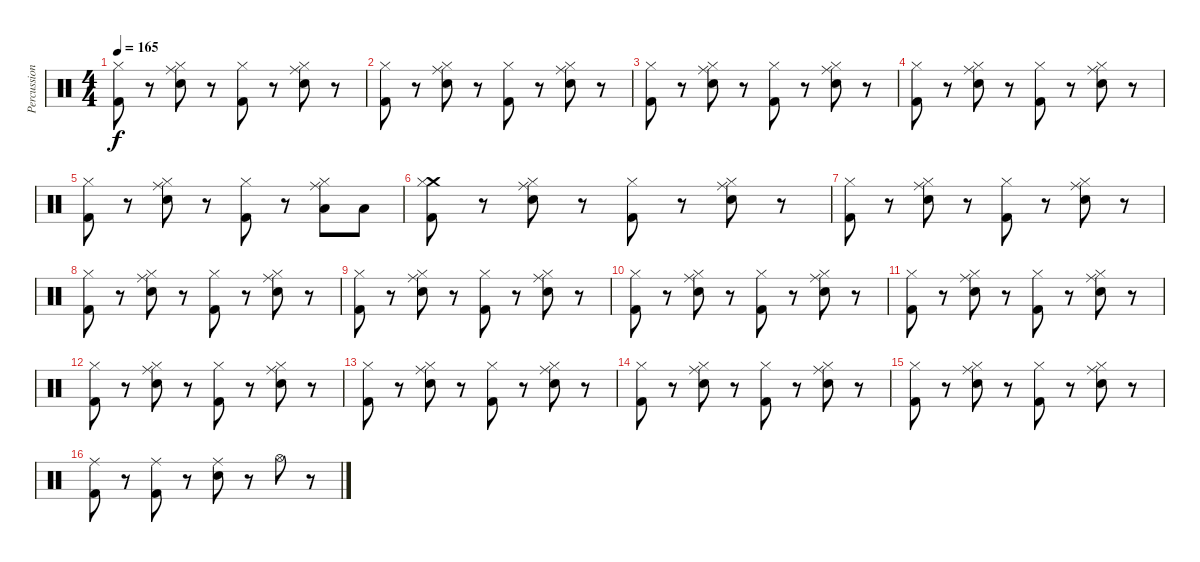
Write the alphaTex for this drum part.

\track ("Percussions" "Percussion") {instrument percussion}
\staff {score}
\articulation defaults
\ts (4 4)
\tempo 165
\clef neutral
\ks c
("Kick (hit) 2" "Hi-Hat (closed)").8{dy f} r.8 ("Electric Snare (hit)" "Ride (middle)" "Hi-Hat (closed)").8 r.8 ("Kick (hit) 2" "Hi-Hat (closed)").8 r.8 ("Electric Snare (hit)" "Ride (middle)" "Hi-Hat (closed)").8 r.8 |
("Kick (hit) 2" "Hi-Hat (closed)").8 r.8 ("Electric Snare (hit)" "Ride (middle)" "Hi-Hat (closed)").8 r.8 ("Kick (hit) 2" "Hi-Hat (closed)").8 r.8 ("Electric Snare (hit)" "Ride (middle)" "Hi-Hat (closed)").8 r.8 |
("Kick (hit) 2" "Hi-Hat (closed)").8 r.8 ("Electric Snare (hit)" "Ride (middle)" "Hi-Hat (closed)").8 r.8 ("Kick (hit) 2" "Hi-Hat (closed)").8 r.8 ("Electric Snare (hit)" "Ride (middle)" "Hi-Hat (closed)").8 r.8 |
("Kick (hit) 2" "Hi-Hat (closed)").8 r.8 ("Electric Snare (hit)" "Ride (middle)" "Hi-Hat (closed)").8 r.8 ("Kick (hit) 2" "Hi-Hat (closed)").8 r.8 ("Electric Snare (hit)" "Ride (middle)" "Hi-Hat (closed)").8 r.8 |
("Kick (hit) 2" "Hi-Hat (closed)").8 r.8 ("Electric Snare (hit)" "Ride (middle)" "Hi-Hat (closed)").8 r.8 ("Kick (hit) 2" "Hi-Hat (closed)").8 r.8 ("Low Tom (hit)" "Ride (middle)" "Hi-Hat (closed)").8 "Low Tom (hit)".8 |
("Kick (hit) 2" "Crash medium (hit)" "Hi-Hat (closed)").8 r.8 ("Electric Snare (hit)" "Ride (middle)" "Hi-Hat (closed)").8 r.8 ("Kick (hit) 2" "Hi-Hat (closed)").8 r.8 ("Electric Snare (hit)" "Ride (middle)" "Hi-Hat (closed)").8 r.8 |
("Kick (hit) 2" "Hi-Hat (closed)").8 r.8 ("Electric Snare (hit)" "Ride (middle)" "Hi-Hat (closed)").8 r.8 ("Kick (hit) 2" "Hi-Hat (closed)").8 r.8 ("Electric Snare (hit)" "Ride (middle)" "Hi-Hat (closed)").8 r.8 |
("Kick (hit) 2" "Hi-Hat (closed)").8 r.8 ("Electric Snare (hit)" "Ride (middle)" "Hi-Hat (closed)").8 r.8 ("Kick (hit) 2" "Hi-Hat (closed)").8 r.8 ("Electric Snare (hit)" "Ride (middle)" "Hi-Hat (closed)").8 r.8 |
("Kick (hit) 2" "Hi-Hat (closed)").8 r.8 ("Electric Snare (hit)" "Ride (middle)" "Hi-Hat (closed)").8 r.8 ("Kick (hit) 2" "Hi-Hat (closed)").8 r.8 ("Electric Snare (hit)" "Ride (middle)" "Hi-Hat (closed)").8 r.8 |
("Kick (hit) 2" "Hi-Hat (closed)").8 r.8 ("Electric Snare (hit)" "Ride (middle)" "Hi-Hat (closed)").8 r.8 ("Kick (hit) 2" "Hi-Hat (closed)").8 r.8 ("Electric Snare (hit)" "Ride (middle)" "Hi-Hat (closed)").8 r.8 |
("Kick (hit) 2" "Hi-Hat (closed)").8 r.8 ("Electric Snare (hit)" "Ride (middle)" "Hi-Hat (closed)").8 r.8 ("Kick (hit) 2" "Hi-Hat (closed)").8 r.8 ("Electric Snare (hit)" "Ride (middle)" "Hi-Hat (closed)").8 r.8 |
("Kick (hit) 2" "Hi-Hat (closed)").8 r.8 ("Electric Snare (hit)" "Ride (middle)" "Hi-Hat (closed)").8 r.8 ("Kick (hit) 2" "Hi-Hat (closed)").8 r.8 ("Electric Snare (hit)" "Ride (middle)" "Hi-Hat (closed)").8 r.8 |
("Kick (hit) 2" "Hi-Hat (closed)").8 r.8 ("Electric Snare (hit)" "Ride (middle)" "Hi-Hat (closed)").8 r.8 ("Kick (hit) 2" "Hi-Hat (closed)").8 r.8 ("Electric Snare (hit)" "Ride (middle)" "Hi-Hat (closed)").8 r.8 |
("Kick (hit) 2" "Hi-Hat (closed)").8 r.8 ("Electric Snare (hit)" "Ride (middle)" "Hi-Hat (closed)").8 r.8 ("Kick (hit) 2" "Hi-Hat (closed)").8 r.8 ("Electric Snare (hit)" "Ride (middle)" "Hi-Hat (closed)").8 r.8 |
("Kick (hit) 2" "Hi-Hat (closed)").8 r.8 ("Electric Snare (hit)" "Ride (middle)" "Hi-Hat (closed)").8 r.8 ("Kick (hit) 2" "Hi-Hat (closed)").8 r.8 ("Electric Snare (hit)" "Ride (middle)" "Hi-Hat (closed)").8 r.8 |
("Kick (hit) 2" "Ride (middle)").8 r.8 ("Kick (hit) 2" "Ride (middle)").8 r.8 ("Electric Snare (hit)" "Ride (middle)").8 r.8 "Hi-Hat (open)".8 r.8
